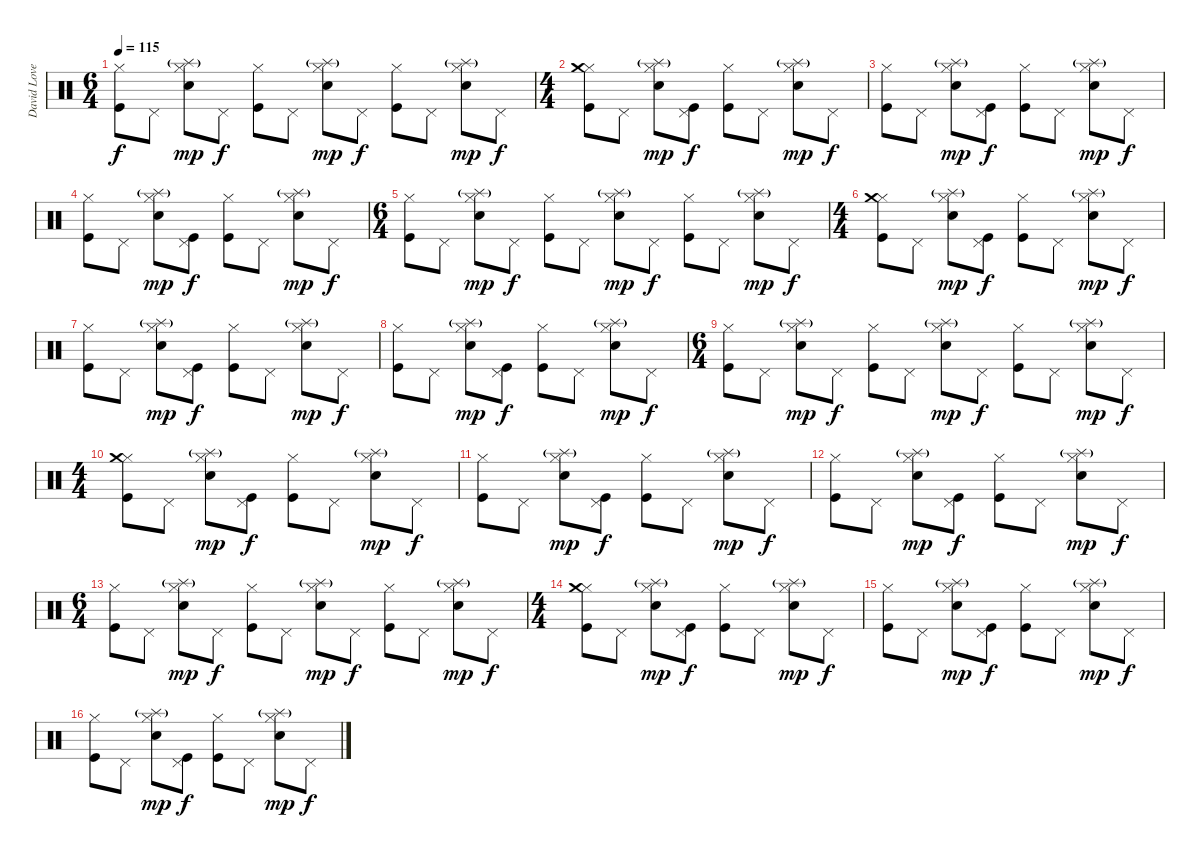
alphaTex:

\track ("David Lovering" "David Love") {instrument percussion}
\staff {score}
\articulation defaults
\ts (6 4)
\tempo 115
\clef neutral
\ks c
("Hi-Hat (closed)" "Kick (hit)").8{dy f} "Pedal Hi-Hat (hit)".8 ("Hi-Hat (closed)" "Splash (hit)"{g} "Snare (hit) 2").8{dy mp} "Pedal Hi-Hat (hit)".8{dy f} ("Hi-Hat (closed)" "Kick (hit)").8 "Pedal Hi-Hat (hit)".8 ("Hi-Hat (closed)" "Splash (hit)"{g} "Snare (hit) 2").8{dy mp} "Pedal Hi-Hat (hit)".8{dy f} ("Hi-Hat (closed)" "Kick (hit)").8 "Pedal Hi-Hat (hit)".8 ("Hi-Hat (closed)" "Splash (hit)"{g} "Snare (hit) 2").8{dy mp} "Pedal Hi-Hat (hit)".8{dy f} |
\ts (4 4)
("Hi-Hat (closed)" "Crash medium (hit)" "Kick (hit)").8 "Pedal Hi-Hat (hit)".8 ("Hi-Hat (closed)" "Splash (hit)"{g} "Snare (hit) 2").8{dy mp} ("Pedal Hi-Hat (hit)" "Kick (hit)").8{dy f} ("Hi-Hat (closed)" "Kick (hit)").8 "Pedal Hi-Hat (hit)".8 ("Hi-Hat (closed)" "Splash (hit)"{g} "Snare (hit) 2").8{dy mp} "Pedal Hi-Hat (hit)".8{dy f} |
("Hi-Hat (closed)" "Kick (hit)").8 "Pedal Hi-Hat (hit)".8 ("Hi-Hat (closed)" "Splash (hit)"{g} "Snare (hit) 2").8{dy mp} ("Pedal Hi-Hat (hit)" "Kick (hit)").8{dy f} ("Hi-Hat (closed)" "Kick (hit)").8 "Pedal Hi-Hat (hit)".8 ("Hi-Hat (closed)" "Splash (hit)"{g} "Snare (hit) 2").8{dy mp} "Pedal Hi-Hat (hit)".8{dy f} |
("Hi-Hat (closed)" "Kick (hit)").8 "Pedal Hi-Hat (hit)".8 ("Hi-Hat (closed)" "Splash (hit)"{g} "Snare (hit) 2").8{dy mp} ("Pedal Hi-Hat (hit)" "Kick (hit)").8{dy f} ("Hi-Hat (closed)" "Kick (hit)").8 "Pedal Hi-Hat (hit)".8 ("Hi-Hat (closed)" "Splash (hit)"{g} "Snare (hit) 2").8{dy mp} "Pedal Hi-Hat (hit)".8{dy f} |
\ts (6 4)
("Hi-Hat (closed)" "Kick (hit)").8 "Pedal Hi-Hat (hit)".8 ("Hi-Hat (closed)" "Splash (hit)"{g} "Snare (hit) 2").8{dy mp} "Pedal Hi-Hat (hit)".8{dy f} ("Hi-Hat (closed)" "Kick (hit)").8 "Pedal Hi-Hat (hit)".8 ("Hi-Hat (closed)" "Splash (hit)"{g} "Snare (hit) 2").8{dy mp} "Pedal Hi-Hat (hit)".8{dy f} ("Hi-Hat (closed)" "Kick (hit)").8 "Pedal Hi-Hat (hit)".8 ("Hi-Hat (closed)" "Splash (hit)"{g} "Snare (hit) 2").8{dy mp} "Pedal Hi-Hat (hit)".8{dy f} |
\ts (4 4)
("Hi-Hat (closed)" "Crash medium (hit)" "Kick (hit)").8 "Pedal Hi-Hat (hit)".8 ("Hi-Hat (closed)" "Splash (hit)"{g} "Snare (hit) 2").8{dy mp} ("Pedal Hi-Hat (hit)" "Kick (hit)").8{dy f} ("Hi-Hat (closed)" "Kick (hit)").8 "Pedal Hi-Hat (hit)".8 ("Hi-Hat (closed)" "Splash (hit)"{g} "Snare (hit) 2").8{dy mp} "Pedal Hi-Hat (hit)".8{dy f} |
("Hi-Hat (closed)" "Kick (hit)").8 "Pedal Hi-Hat (hit)".8 ("Hi-Hat (closed)" "Splash (hit)"{g} "Snare (hit) 2").8{dy mp} ("Pedal Hi-Hat (hit)" "Kick (hit)").8{dy f} ("Hi-Hat (closed)" "Kick (hit)").8 "Pedal Hi-Hat (hit)".8 ("Hi-Hat (closed)" "Splash (hit)"{g} "Snare (hit) 2").8{dy mp} "Pedal Hi-Hat (hit)".8{dy f} |
("Hi-Hat (closed)" "Kick (hit)").8 "Pedal Hi-Hat (hit)".8 ("Hi-Hat (closed)" "Splash (hit)"{g} "Snare (hit) 2").8{dy mp} ("Pedal Hi-Hat (hit)" "Kick (hit)").8{dy f} ("Hi-Hat (closed)" "Kick (hit)").8 "Pedal Hi-Hat (hit)".8 ("Hi-Hat (closed)" "Splash (hit)"{g} "Snare (hit) 2").8{dy mp} "Pedal Hi-Hat (hit)".8{dy f} |
\ts (6 4)
("Hi-Hat (closed)" "Kick (hit)").8 "Pedal Hi-Hat (hit)".8 ("Hi-Hat (closed)" "Splash (hit)"{g} "Snare (hit) 2").8{dy mp} "Pedal Hi-Hat (hit)".8{dy f} ("Hi-Hat (closed)" "Kick (hit)").8 "Pedal Hi-Hat (hit)".8 ("Hi-Hat (closed)" "Splash (hit)"{g} "Snare (hit) 2").8{dy mp} "Pedal Hi-Hat (hit)".8{dy f} ("Hi-Hat (closed)" "Kick (hit)").8 "Pedal Hi-Hat (hit)".8 ("Hi-Hat (closed)" "Splash (hit)"{g} "Snare (hit) 2").8{dy mp} "Pedal Hi-Hat (hit)".8{dy f} |
\ts (4 4)
("Hi-Hat (closed)" "Crash medium (hit)" "Kick (hit)").8 "Pedal Hi-Hat (hit)".8 ("Hi-Hat (closed)" "Splash (hit)"{g} "Snare (hit) 2").8{dy mp} ("Pedal Hi-Hat (hit)" "Kick (hit)").8{dy f} ("Hi-Hat (closed)" "Kick (hit)").8 "Pedal Hi-Hat (hit)".8 ("Hi-Hat (closed)" "Splash (hit)"{g} "Snare (hit) 2").8{dy mp} "Pedal Hi-Hat (hit)".8{dy f} |
("Hi-Hat (closed)" "Kick (hit)").8 "Pedal Hi-Hat (hit)".8 ("Hi-Hat (closed)" "Splash (hit)"{g} "Snare (hit) 2").8{dy mp} ("Pedal Hi-Hat (hit)" "Kick (hit)").8{dy f} ("Hi-Hat (closed)" "Kick (hit)").8 "Pedal Hi-Hat (hit)".8 ("Hi-Hat (closed)" "Splash (hit)"{g} "Snare (hit) 2").8{dy mp} "Pedal Hi-Hat (hit)".8{dy f} |
("Hi-Hat (closed)" "Kick (hit)").8 "Pedal Hi-Hat (hit)".8 ("Hi-Hat (closed)" "Splash (hit)"{g} "Snare (hit) 2").8{dy mp} ("Pedal Hi-Hat (hit)" "Kick (hit)").8{dy f} ("Hi-Hat (closed)" "Kick (hit)").8 "Pedal Hi-Hat (hit)".8 ("Hi-Hat (closed)" "Splash (hit)"{g} "Snare (hit) 2").8{dy mp} "Pedal Hi-Hat (hit)".8{dy f} |
\ts (6 4)
("Hi-Hat (closed)" "Kick (hit)").8 "Pedal Hi-Hat (hit)".8 ("Hi-Hat (closed)" "Splash (hit)"{g} "Snare (hit) 2").8{dy mp} "Pedal Hi-Hat (hit)".8{dy f} ("Hi-Hat (closed)" "Kick (hit)").8 "Pedal Hi-Hat (hit)".8 ("Hi-Hat (closed)" "Splash (hit)"{g} "Snare (hit) 2").8{dy mp} "Pedal Hi-Hat (hit)".8{dy f} ("Hi-Hat (closed)" "Kick (hit)").8 "Pedal Hi-Hat (hit)".8 ("Hi-Hat (closed)" "Splash (hit)"{g} "Snare (hit) 2").8{dy mp} "Pedal Hi-Hat (hit)".8{dy f} |
\ts (4 4)
("Hi-Hat (closed)" "Crash medium (hit)" "Kick (hit)").8 "Pedal Hi-Hat (hit)".8 ("Hi-Hat (closed)" "Splash (hit)"{g} "Snare (hit) 2").8{dy mp} ("Pedal Hi-Hat (hit)" "Kick (hit)").8{dy f} ("Hi-Hat (closed)" "Kick (hit)").8 "Pedal Hi-Hat (hit)".8 ("Hi-Hat (closed)" "Splash (hit)"{g} "Snare (hit) 2").8{dy mp} "Pedal Hi-Hat (hit)".8{dy f} |
("Hi-Hat (closed)" "Kick (hit)").8 "Pedal Hi-Hat (hit)".8 ("Hi-Hat (closed)" "Splash (hit)"{g} "Snare (hit) 2").8{dy mp} ("Pedal Hi-Hat (hit)" "Kick (hit)").8{dy f} ("Hi-Hat (closed)" "Kick (hit)").8 "Pedal Hi-Hat (hit)".8 ("Hi-Hat (closed)" "Splash (hit)"{g} "Snare (hit) 2").8{dy mp} "Pedal Hi-Hat (hit)".8{dy f} |
("Hi-Hat (closed)" "Kick (hit)").8 "Pedal Hi-Hat (hit)".8 ("Hi-Hat (closed)" "Splash (hit)"{g} "Snare (hit) 2").8{dy mp} ("Pedal Hi-Hat (hit)" "Kick (hit)").8{dy f} ("Hi-Hat (closed)" "Kick (hit)").8 "Pedal Hi-Hat (hit)".8 ("Hi-Hat (closed)" "Splash (hit)"{g} "Snare (hit) 2").8{dy mp} "Pedal Hi-Hat (hit)".8{dy f}
